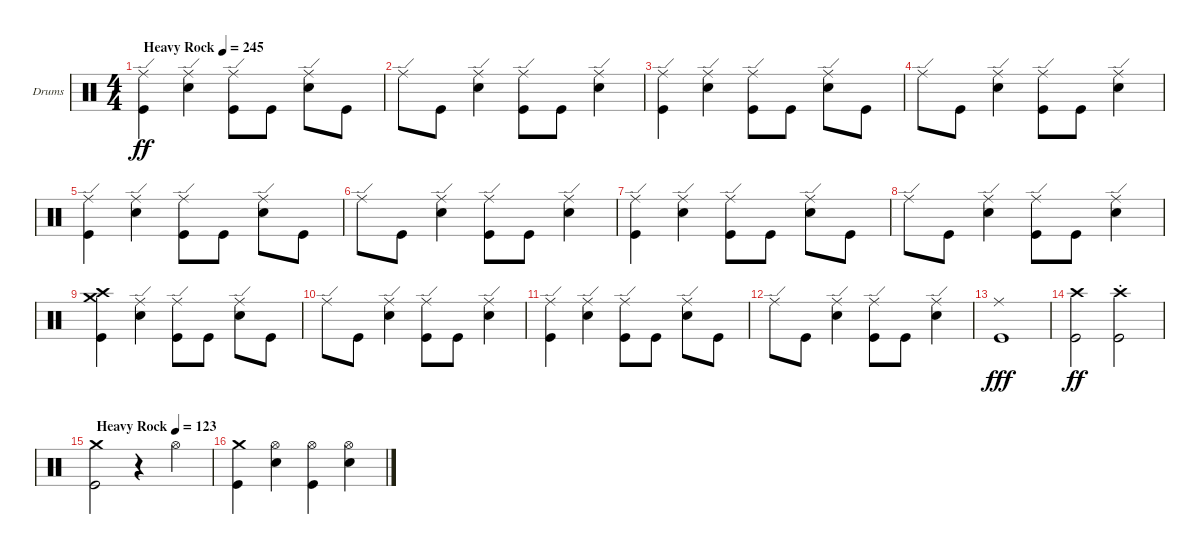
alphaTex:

\bracketExtendMode groupsimilarinstruments
\firstSystemTrackNameOrientation horizontal
\otherSystemsTrackNameOrientation horizontal
\track ("Drumkit" "Drums") {instrument percussion}
\staff {score}
\articulation defaults
\ts (4 4)
\tempo (245 "Heavy Rock")
\clef neutral
\ks c
("Kick (hit)" "Ride (edge)").4{dy ff} ("Snare (hit) 2" "Ride (edge)").4 ("Kick (hit)" "Ride (edge)").8 "Kick (hit)".8 ("Snare (hit) 2" "Ride (edge)").8 "Kick (hit)".8 |
"Ride (edge)".8 "Kick (hit)".8 ("Snare (hit) 2" "Ride (edge)").4 ("Kick (hit)" "Ride (edge)").8 "Kick (hit)".8 ("Snare (hit) 2" "Ride (edge)").4 |
("Kick (hit)" "Ride (edge)").4 ("Snare (hit) 2" "Ride (edge)").4 ("Kick (hit)" "Ride (edge)").8 "Kick (hit)".8 ("Snare (hit) 2" "Ride (edge)").8 "Kick (hit)".8 |
"Ride (edge)".8 "Kick (hit)".8 ("Snare (hit) 2" "Ride (edge)").4 ("Kick (hit)" "Ride (edge)").8 "Kick (hit)".8 ("Snare (hit) 2" "Ride (edge)").4 |
("Kick (hit)" "Ride (edge)").4 ("Snare (hit) 2" "Ride (edge)").4 ("Kick (hit)" "Ride (edge)").8 "Kick (hit)".8 ("Snare (hit) 2" "Ride (edge)").8 "Kick (hit)".8 |
"Ride (edge)".8 "Kick (hit)".8 ("Snare (hit) 2" "Ride (edge)").4 ("Kick (hit)" "Ride (edge)").8 "Kick (hit)".8 ("Snare (hit) 2" "Ride (edge)").4 |
("Kick (hit)" "Ride (edge)").4 ("Snare (hit) 2" "Ride (edge)").4 ("Kick (hit)" "Ride (edge)").8 "Kick (hit)".8 ("Snare (hit) 2" "Ride (edge)").8 "Kick (hit)".8 |
"Ride (edge)".8 "Kick (hit)".8 ("Snare (hit) 2" "Ride (edge)").4 ("Kick (hit)" "Ride (edge)").8 "Kick (hit)".8 ("Snare (hit) 2" "Ride (edge)").4 |
("Kick (hit)" "Crash high (hit)" "Crash medium (hit)").4 ("Snare (hit) 2" "Ride (edge)").4 ("Kick (hit)" "Ride (edge)").8 "Kick (hit)".8 ("Snare (hit) 2" "Ride (edge)").8 "Kick (hit)".8 |
"Ride (edge)".8 "Kick (hit)".8 ("Snare (hit) 2" "Ride (edge)").4 ("Kick (hit)" "Ride (edge)").8 "Kick (hit)".8 ("Snare (hit) 2" "Ride (edge)").4 |
("Kick (hit)" "Ride (edge)").4 ("Snare (hit) 2" "Ride (edge)").4 ("Kick (hit)" "Ride (edge)").8 "Kick (hit)".8 ("Snare (hit) 2" "Ride (edge)").8 "Kick (hit)".8 |
"Ride (edge)".8 "Kick (hit)".8 ("Snare (hit) 2" "Ride (edge)").4 ("Kick (hit)" "Ride (edge)").8 "Kick (hit)".8 ("Snare (hit) 2" "Ride (edge)").4 |
("Kick (hit)" "Ride (middle)").1{dy fff} |
("Kick (hit)" "Crash high (hit)").2{dy ff} ("Kick (hit)"{st} "Crash high (hit)").2 |
\tempo (123 "Heavy Rock")
("Kick (hit)" "Crash medium (hit)").2 r.4 "Hi-Hat (open)".4 |
("Crash medium (hit)" "Kick (hit)").4 ("Snare (hit) 2" "Hi-Hat (open)").4 ("Kick (hit)" "Hi-Hat (open)").4 ("Snare (hit) 2" "Hi-Hat (open)").4
